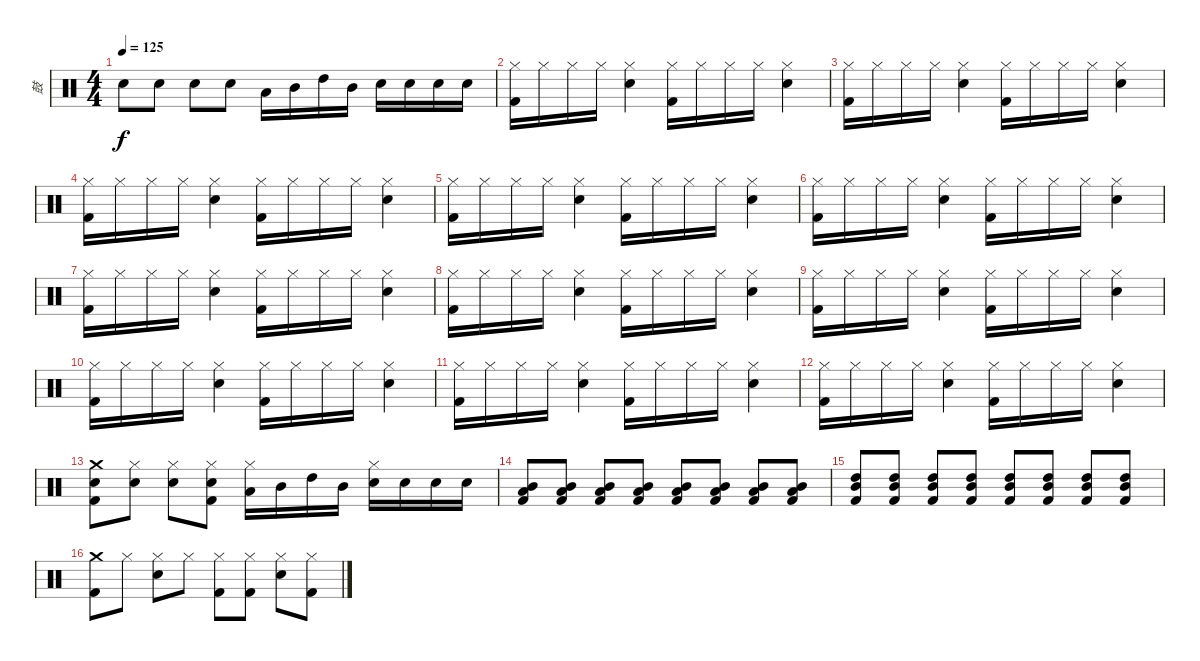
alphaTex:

\track ("鼓" "鼓") {instrument percussion}
\staff {score}
\articulation defaults
\ts (4 4)
\tempo 125
\clef neutral
\ks c "Electric Snare (hit)".8{dy f} "Electric Snare (hit)".8 "Electric Snare (hit)".8 "Electric Snare (hit)".8 "Low Tom (hit)".16 "Mid Tom (hit)".16 "High Tom (hit)".16 "Mid Tom (hit)".16 "Electric Snare (hit)".16 "Electric Snare (hit)".16 "Electric Snare (hit)".16 "Electric Snare (hit)".16
|
("Hi-Hat (closed)" "Kick (hit) 2").16 "Hi-Hat (closed)".16 "Hi-Hat (closed)".16 "Hi-Hat (closed)".16 ("Hi-Hat (closed)" "Electric Snare (hit)").4 ("Hi-Hat (closed)" "Kick (hit) 2").16 "Hi-Hat (closed)".16 "Hi-Hat (closed)".16 "Hi-Hat (closed)".16 ("Hi-Hat (closed)" "Electric Snare (hit)").4 |
("Hi-Hat (closed)" "Kick (hit) 2").16 "Hi-Hat (closed)".16 "Hi-Hat (closed)".16 "Hi-Hat (closed)".16 ("Hi-Hat (closed)" "Electric Snare (hit)").4 ("Hi-Hat (closed)" "Kick (hit) 2").16 "Hi-Hat (closed)".16 "Hi-Hat (closed)".16 "Hi-Hat (closed)".16 ("Hi-Hat (closed)" "Electric Snare (hit)").4 |
("Hi-Hat (closed)" "Kick (hit) 2").16 "Hi-Hat (closed)".16 "Hi-Hat (closed)".16 "Hi-Hat (closed)".16 ("Hi-Hat (closed)" "Electric Snare (hit)").4 ("Hi-Hat (closed)" "Kick (hit) 2").16 "Hi-Hat (closed)".16 "Hi-Hat (closed)".16 "Hi-Hat (closed)".16 ("Hi-Hat (closed)" "Electric Snare (hit)").4 |
("Hi-Hat (closed)" "Kick (hit) 2").16 "Hi-Hat (closed)".16 "Hi-Hat (closed)".16 "Hi-Hat (closed)".16 ("Hi-Hat (closed)" "Electric Snare (hit)").4 ("Hi-Hat (closed)" "Kick (hit) 2").16 "Hi-Hat (closed)".16 "Hi-Hat (closed)".16 "Hi-Hat (closed)".16 ("Hi-Hat (closed)" "Electric Snare (hit)").4 |
("Hi-Hat (closed)" "Kick (hit) 2").16 "Hi-Hat (closed)".16 "Hi-Hat (closed)".16 "Hi-Hat (closed)".16 ("Hi-Hat (closed)" "Electric Snare (hit)").4 ("Hi-Hat (closed)" "Kick (hit) 2").16 "Hi-Hat (closed)".16 "Hi-Hat (closed)".16 "Hi-Hat (closed)".16 ("Hi-Hat (closed)" "Electric Snare (hit)").4 |
("Hi-Hat (closed)" "Kick (hit) 2").16 "Hi-Hat (closed)".16 "Hi-Hat (closed)".16 "Hi-Hat (closed)".16 ("Hi-Hat (closed)" "Electric Snare (hit)").4 ("Hi-Hat (closed)" "Kick (hit) 2").16 "Hi-Hat (closed)".16 "Hi-Hat (closed)".16 "Hi-Hat (closed)".16 ("Hi-Hat (closed)" "Electric Snare (hit)").4 |
("Hi-Hat (closed)" "Kick (hit) 2").16 "Hi-Hat (closed)".16 "Hi-Hat (closed)".16 "Hi-Hat (closed)".16 ("Hi-Hat (closed)" "Electric Snare (hit)").4 ("Hi-Hat (closed)" "Kick (hit) 2").16 "Hi-Hat (closed)".16 "Hi-Hat (closed)".16 "Hi-Hat (closed)".16 ("Hi-Hat (closed)" "Electric Snare (hit)").4 |
("Hi-Hat (closed)" "Kick (hit) 2").16 "Hi-Hat (closed)".16 "Hi-Hat (closed)".16 "Hi-Hat (closed)".16 ("Hi-Hat (closed)" "Electric Snare (hit)").4 ("Hi-Hat (closed)" "Kick (hit) 2").16 "Hi-Hat (closed)".16 "Hi-Hat (closed)".16 "Hi-Hat (closed)".16 ("Hi-Hat (closed)" "Electric Snare (hit)").4 |
("Hi-Hat (closed)" "Kick (hit) 2").16 "Hi-Hat (closed)".16 "Hi-Hat (closed)".16 "Hi-Hat (closed)".16 ("Hi-Hat (closed)" "Electric Snare (hit)").4 ("Hi-Hat (closed)" "Kick (hit) 2").16 "Hi-Hat (closed)".16 "Hi-Hat (closed)".16 "Hi-Hat (closed)".16 ("Hi-Hat (closed)" "Electric Snare (hit)").4 |
("Hi-Hat (closed)" "Kick (hit) 2").16 "Hi-Hat (closed)".16 "Hi-Hat (closed)".16 "Hi-Hat (closed)".16 ("Hi-Hat (closed)" "Electric Snare (hit)").4 ("Hi-Hat (closed)" "Kick (hit) 2").16 "Hi-Hat (closed)".16 "Hi-Hat (closed)".16 "Hi-Hat (closed)".16 ("Hi-Hat (closed)" "Electric Snare (hit)").4 |
("Hi-Hat (closed)" "Kick (hit) 2").16 "Hi-Hat (closed)".16 "Hi-Hat (closed)".16 "Hi-Hat (closed)".16 ("Hi-Hat (closed)" "Electric Snare (hit)").4 ("Hi-Hat (closed)" "Kick (hit) 2").16 "Hi-Hat (closed)".16 "Hi-Hat (closed)".16 "Hi-Hat (closed)".16 ("Hi-Hat (closed)" "Electric Snare (hit)").4 |
("Crash medium (hit)" "Electric Snare (hit)" "Kick (hit) 2").8 ("Hi-Hat (closed)" "Electric Snare (hit)").8 ("Hi-Hat (closed)" "Electric Snare (hit)").8 ("Hi-Hat (closed)" "Electric Snare (hit)" "Kick (hit) 2").8 ("Hi-Hat (closed)" "Low Tom (hit)").16 "Mid Tom (hit)".16 "High Tom (hit)".16 "Mid Tom (hit)".16 ("Hi-Hat (closed)" "Electric Snare (hit)").16 "Electric Snare (hit)".16 "Electric Snare (hit)".16 "Electric Snare (hit)".16 |
("Mid Tom (hit)" "Low Tom (hit)" "Kick (hit) 2").8 ("Mid Tom (hit)" "Low Tom (hit)" "Kick (hit) 2").8 ("Mid Tom (hit)" "Low Tom (hit)" "Kick (hit) 2").8 ("Mid Tom (hit)" "Low Tom (hit)" "Kick (hit) 2").8 ("Mid Tom (hit)" "Low Tom (hit)" "Kick (hit) 2").8 ("Mid Tom (hit)" "Low Tom (hit)" "Kick (hit) 2").8 ("Mid Tom (hit)" "Low Tom (hit)" "Kick (hit) 2").8 ("Mid Tom (hit)" "Low Tom (hit)" "Kick (hit) 2").8 |
("Mid Tom (hit)" "High Tom (hit)" "Kick (hit) 2").8 ("Mid Tom (hit)" "High Tom (hit)" "Kick (hit) 2").8 ("Mid Tom (hit)" "High Tom (hit)" "Kick (hit) 2").8 ("Mid Tom (hit)" "High Tom (hit)" "Kick (hit) 2").8 ("Mid Tom (hit)" "High Tom (hit)" "Kick (hit) 2").8 ("Mid Tom (hit)" "High Tom (hit)" "Kick (hit) 2").8 ("Mid Tom (hit)" "High Tom (hit)" "Kick (hit) 2").8 ("Mid Tom (hit)" "High Tom (hit)" "Kick (hit) 2").8 |
("Crash medium (hit)" "Kick (hit) 2").8 "Hi-Hat (closed)".8 ("Hi-Hat (closed)" "Electric Snare (hit)").8 "Hi-Hat (closed)".8 ("Hi-Hat (closed)" "Kick (hit) 2").8 ("Hi-Hat (closed)" "Kick (hit) 2").8 ("Hi-Hat (closed)" "Electric Snare (hit)").8 ("Hi-Hat (closed)" "Kick (hit) 2").8
